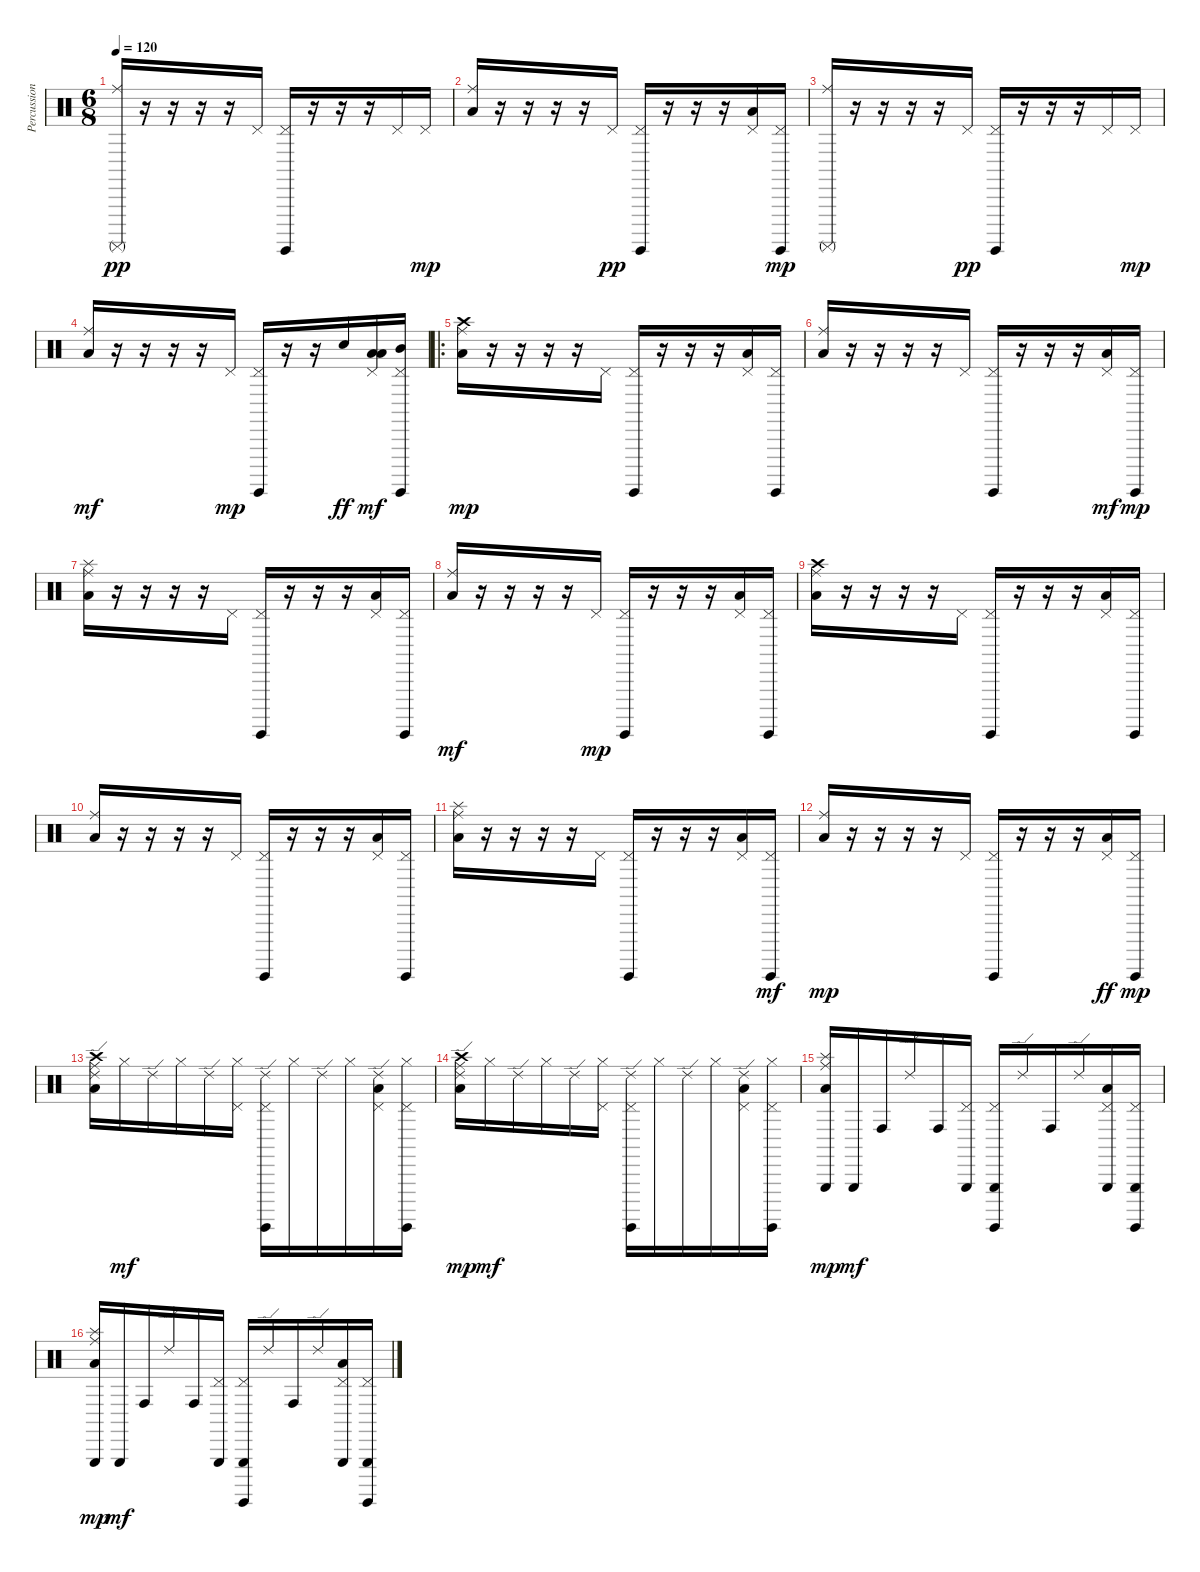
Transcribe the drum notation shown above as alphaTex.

\track ("Percussions" "Percussion") {instrument percussion}
\staff {score}
\articulation defaults
\ts (6 8)
\tempo 120
\clef neutral
\ks c
("Surdo (mute)" "Ride (middle)").16{dy pp} r.16 r.16 r.16 r.16 "Pedal Hi-Hat (hit)".16 ("Surdo (hit)" "Pedal Hi-Hat (hit)").16 r.16 r.16 r.16 "Pedal Hi-Hat (hit)".16 "Pedal Hi-Hat (hit)".16{dy mp} |
("Low Tom (hit)" "Ride (middle)").16 r.16 r.16 r.16 r.16 "Pedal Hi-Hat (hit)".16{dy pp} ("Surdo (hit)" "Pedal Hi-Hat (hit)").16 r.16 r.16 r.16 ("Low Tom (hit)" "Pedal Hi-Hat (hit)").16 ("Surdo (hit)" "Pedal Hi-Hat (hit)").16{dy mp} |
("Surdo (mute)" "Ride (middle)").16 r.16 r.16 r.16 r.16 "Pedal Hi-Hat (hit)".16{dy pp} ("Surdo (hit)" "Pedal Hi-Hat (hit)").16 r.16 r.16 r.16 "Pedal Hi-Hat (hit)".16 "Pedal Hi-Hat (hit)".16{dy mp} |
("Low Tom (hit)" "Ride (middle)").16{dy mf} r.16 r.16 r.16 r.16 "Pedal Hi-Hat (hit)".16{dy mp} ("Surdo (hit)" "Pedal Hi-Hat (hit)").16 r.16 r.16 "Electric Snare (hit)".16{dy ff} ("Low Tom (hit)" "Pedal Hi-Hat (hit)" "Low Floor Tom (hit)").16{dy mf} ("Surdo (hit)" "Pedal Hi-Hat (hit)" "Mid Tom (hit)").16 |
\ro
("Low Tom (hit)" "Ride (middle)" "Crash high (hit)").16{dy mp} r.16 r.16 r.16 r.16 "Pedal Hi-Hat (hit)".16 ("Surdo (hit)" "Pedal Hi-Hat (hit)").16 r.16 r.16 r.16 ("Low Tom (hit)" "Pedal Hi-Hat (hit)").16 ("Surdo (hit)" "Pedal Hi-Hat (hit)").16 |
("Low Tom (hit)" "Ride (middle)").16 r.16 r.16 r.16 r.16 "Pedal Hi-Hat (hit)".16 ("Surdo (hit)" "Pedal Hi-Hat (hit)").16 r.16 r.16 r.16 ("Low Tom (hit)" "Pedal Hi-Hat (hit)").16{dy mf} ("Surdo (hit)" "Pedal Hi-Hat (hit)").16{dy mp} |
("Low Tom (hit)" "Ride (middle)" "Splash (hit)").16 r.16 r.16 r.16 r.16 "Pedal Hi-Hat (hit)".16 ("Surdo (hit)" "Pedal Hi-Hat (hit)").16 r.16 r.16 r.16 ("Low Tom (hit)" "Pedal Hi-Hat (hit)").16 ("Surdo (hit)" "Pedal Hi-Hat (hit)").16 |
("Low Tom (hit)" "Ride (middle)").16{dy mf} r.16 r.16 r.16 r.16 "Pedal Hi-Hat (hit)".16{dy mp} ("Surdo (hit)" "Pedal Hi-Hat (hit)").16 r.16 r.16 r.16 ("Low Tom (hit)" "Pedal Hi-Hat (hit)").16 ("Surdo (hit)" "Pedal Hi-Hat (hit)").16 |
("Low Tom (hit)" "Ride (middle)" "Crash high (hit)").16 r.16 r.16 r.16 r.16 "Pedal Hi-Hat (hit)".16 ("Surdo (hit)" "Pedal Hi-Hat (hit)").16 r.16 r.16 r.16 ("Low Tom (hit)" "Pedal Hi-Hat (hit)").16 ("Surdo (hit)" "Pedal Hi-Hat (hit)").16 |
("Low Tom (hit)" "Ride (middle)").16 r.16 r.16 r.16 r.16 "Pedal Hi-Hat (hit)".16 ("Surdo (hit)" "Pedal Hi-Hat (hit)").16 r.16 r.16 r.16 ("Low Tom (hit)" "Pedal Hi-Hat (hit)").16 ("Surdo (hit)" "Pedal Hi-Hat (hit)").16 |
("Low Tom (hit)" "Ride (middle)" "Splash (hit)").16 r.16 r.16 r.16 r.16 "Pedal Hi-Hat (hit)".16 ("Surdo (hit)" "Pedal Hi-Hat (hit)").16 r.16 r.16 r.16 ("Low Tom (hit)" "Pedal Hi-Hat (hit)").16 ("Surdo (hit)" "Pedal Hi-Hat (hit)").16{dy mf} |
("Low Tom (hit)" "Ride (middle)").16{dy mp} r.16 r.16 r.16 r.16 "Pedal Hi-Hat (hit)".16 ("Surdo (hit)" "Pedal Hi-Hat (hit)").16 r.16 r.16 r.16 ("Low Tom (hit)" "Pedal Hi-Hat (hit)").16{dy ff} ("Surdo (hit)" "Pedal Hi-Hat (hit)").16{dy mp} |
("Low Tom (hit)" "Ride (middle)" "Ride (edge) 2" "Crash high (hit)").16 "Hi-Hat (closed)".16{dy mf} "Ride (edge) 2".16 "Hi-Hat (closed)".16 "Ride (edge) 2".16 ("Pedal Hi-Hat (hit)" "Hi-Hat (closed)").16 ("Surdo (hit)" "Pedal Hi-Hat (hit)" "Ride (edge) 2").16 "Hi-Hat (closed)".16 "Ride (edge) 2".16 "Hi-Hat (closed)".16 ("Low Tom (hit)" "Pedal Hi-Hat (hit)" "Ride (edge) 2").16 ("Surdo (hit)" "Pedal Hi-Hat (hit)" "Hi-Hat (closed)").16 |
("Low Tom (hit)" "Ride (middle)" "Ride (edge) 2" "Crash high (hit)").16{dy mp} "Hi-Hat (closed)".16{dy mf} "Ride (edge) 2".16 "Hi-Hat (closed)".16 "Ride (edge) 2".16 ("Pedal Hi-Hat (hit)" "Hi-Hat (closed)").16 ("Surdo (hit)" "Pedal Hi-Hat (hit)" "Ride (edge) 2").16 "Hi-Hat (closed)".16 "Ride (edge) 2".16 "Hi-Hat (closed)".16 ("Low Tom (hit)" "Pedal Hi-Hat (hit)" "Ride (edge) 2").16 ("Surdo (hit)" "Pedal Hi-Hat (hit)" "Hi-Hat (closed)").16 |
("Low Tom (hit)" "Ride (middle)" "Triangle (hit)" "Splash (hit)").16{dy mp} "Triangle (hit)".16{dy mf} "Conga high (hit)".16 "Ride (edge) 2".16 "Conga high (hit)".16 ("Pedal Hi-Hat (hit)" "Triangle (hit)").16 ("Surdo (hit)" "Pedal Hi-Hat (hit)" "Triangle (hit)").16 "Ride (edge) 2".16 "Conga high (hit)".16 "Ride (edge) 2".16 ("Low Tom (hit)" "Pedal Hi-Hat (hit)" "Triangle (hit)").16 ("Surdo (hit)" "Pedal Hi-Hat (hit)" "Triangle (hit)").16 |
("Low Tom (hit)" "Ride (middle)" "Triangle (hit)" "Splash (hit)").16{dy mp} "Triangle (hit)".16{dy mf} "Conga high (hit)".16 "Ride (edge) 2".16 "Conga high (hit)".16 ("Pedal Hi-Hat (hit)" "Triangle (hit)").16 ("Surdo (hit)" "Pedal Hi-Hat (hit)" "Triangle (hit)").16 "Ride (edge) 2".16 "Conga high (hit)".16 "Ride (edge) 2".16 ("Low Tom (hit)" "Pedal Hi-Hat (hit)" "Triangle (hit)").16 ("Surdo (hit)" "Pedal Hi-Hat (hit)" "Triangle (hit)").16
